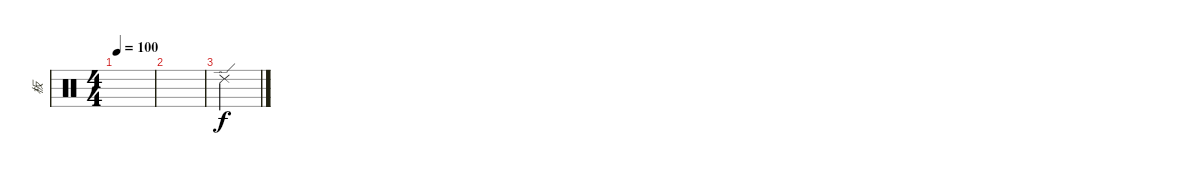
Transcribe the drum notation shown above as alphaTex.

\track ("板" "板") {instrument percussion}
\staff {score}
\articulation defaults
\ts (4 4)
\tempo 100
\clef neutral
\ks c
|
|
"Ride (edge) 2".4{dy f}
